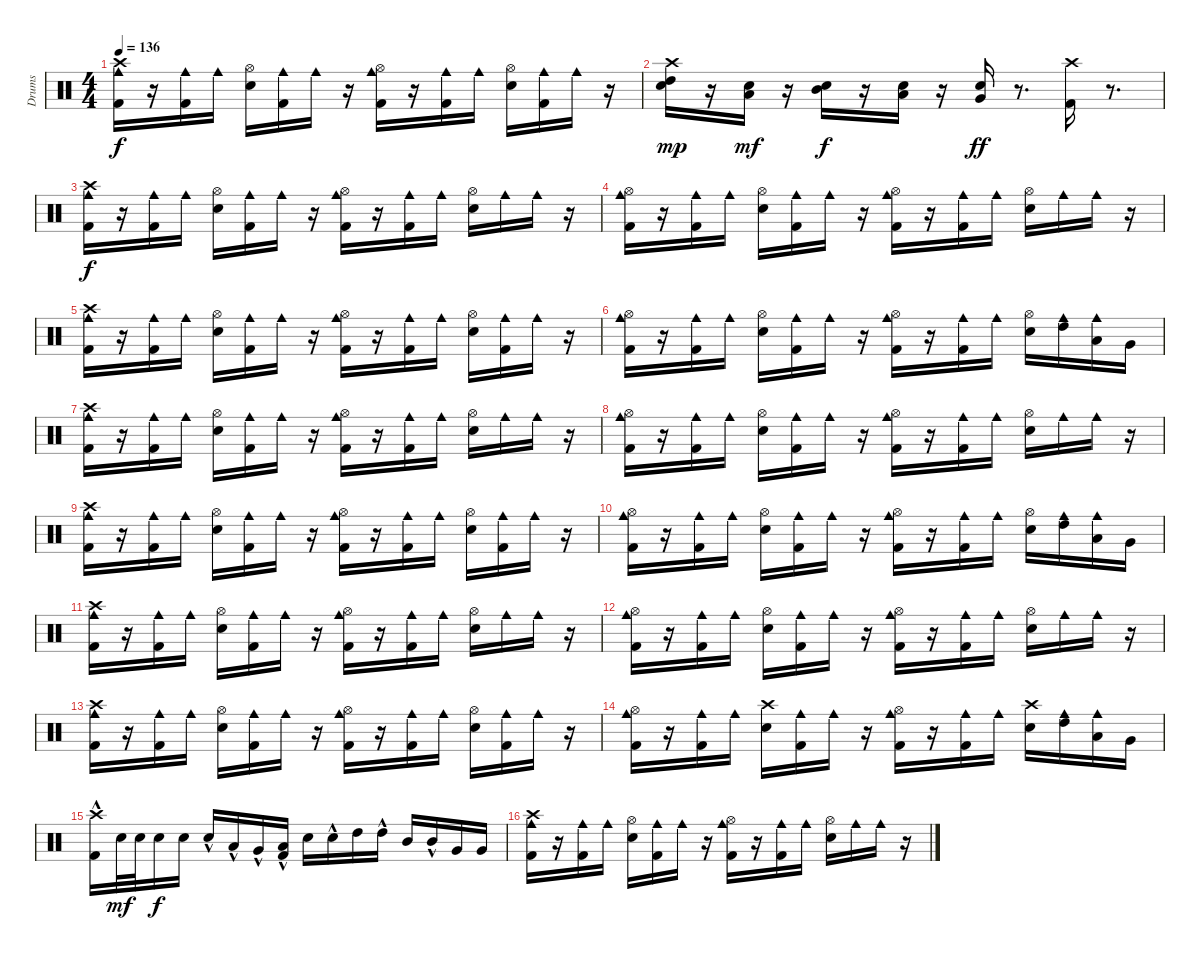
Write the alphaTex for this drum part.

\track ("Drums" "Drums") {instrument percussion}
\staff {score}
\articulation defaults
\ts (4 4)
\tempo 136
\clef neutral
\ks c
("Kick (hit) 2" "Cowbell medium (hit)" "Crash high (hit)").16{dy f} r.16 ("Kick (hit) 2" "Cowbell medium (hit)").16 "Cowbell medium (hit)".16 ("Metronome (bell)" "Hi-Hat (open)").16 ("Cowbell medium (hit)" "Kick (hit) 2").16 "Cowbell medium (hit)".16 r.16 ("Cowbell medium (hit)" "Kick (hit) 2" "Hi-Hat (open)").16 r.16 ("Cowbell medium (hit)" "Kick (hit) 2").16 "Cowbell medium (hit)".16 ("Metronome (bell)" "Hi-Hat (open)").16 ("Cowbell medium (hit)" "Kick (hit) 2").16 "Cowbell medium (hit)".16 r.16 |
("Crash high (hit)" "Metronome (bell)" "High Tom (hit)").16{dy mp} r.16 ("Low Floor Tom (hit)" "Metronome (bell)").16{dy mf} r.16 ("Metronome (bell)" "Mid Tom (hit)").16{dy f} r.16 ("Metronome (bell)" "Low Floor Tom (hit)").16 r.16 ("Metronome (bell)" "Very Low Tom (hit)").16{dy ff} r.8{d} ("Kick (hit) 2" "Crash high (hit)").16 r.8{d} |
("Cowbell medium (hit)" "Kick (hit) 2" "Crash high (hit)").16{dy f} r.16 ("Cowbell medium (hit)" "Kick (hit) 2").16 "Cowbell medium (hit)".16 ("Metronome (bell)" "Hi-Hat (open)").16 ("Cowbell medium (hit)" "Kick (hit) 2").16 "Cowbell medium (hit)".16 r.16 ("Kick (hit) 2" "Cowbell medium (hit)" "Hi-Hat (open)").16 r.16 ("Cowbell medium (hit)" "Kick (hit) 2").16 "Cowbell medium (hit)".16 ("Metronome (bell)" "Hi-Hat (open)").16 "Cowbell medium (hit)".16 "Cowbell medium (hit)".16 r.16 |
("Kick (hit) 2" "Cowbell medium (hit)" "Hi-Hat (open)").16 r.16 ("Kick (hit) 2" "Cowbell medium (hit)").16 "Cowbell medium (hit)".16 ("Metronome (bell)" "Hi-Hat (open)").16 ("Cowbell medium (hit)" "Kick (hit) 2").16 "Cowbell medium (hit)".16 r.16 ("Kick (hit) 2" "Cowbell medium (hit)" "Hi-Hat (open)").16 r.16 ("Kick (hit) 2" "Cowbell medium (hit)").16 "Cowbell medium (hit)".16 ("Metronome (bell)" "Hi-Hat (open)").16 "Cowbell medium (hit)".16 "Cowbell medium (hit)".16 r.16 |
("Cowbell medium (hit)" "Kick (hit) 2" "Crash high (hit)").16 r.16 ("Cowbell medium (hit)" "Kick (hit) 2").16 "Cowbell medium (hit)".16 ("Metronome (bell)" "Hi-Hat (open)").16 ("Cowbell medium (hit)" "Kick (hit) 2").16 "Cowbell medium (hit)".16 r.16 ("Kick (hit) 2" "Cowbell medium (hit)" "Hi-Hat (open)").16 r.16 ("Cowbell medium (hit)" "Kick (hit) 2").16 "Cowbell medium (hit)".16 ("Metronome (bell)" "Hi-Hat (open)").16 ("Cowbell medium (hit)" "Kick (hit) 2").16 "Cowbell medium (hit)".16 r.16 |
("Kick (hit) 2" "Cowbell medium (hit)" "Hi-Hat (open)").16 r.16 ("Kick (hit) 2" "Cowbell medium (hit)").16 "Cowbell medium (hit)".16 ("Metronome (bell)" "Hi-Hat (open)").16 ("Cowbell medium (hit)" "Kick (hit) 2").16 "Cowbell medium (hit)".16 r.16 ("Kick (hit) 2" "Cowbell medium (hit)" "Hi-Hat (open)").16 r.16 ("Kick (hit) 2" "Cowbell medium (hit)").16 "Cowbell medium (hit)".16 ("Metronome (bell)" "Hi-Hat (open)").16 ("Cowbell medium (hit)" "High Tom (hit)").16 ("Cowbell medium (hit)" "Low Tom (hit)").16 "Very Low Tom (hit)".16 |
("Cowbell medium (hit)" "Kick (hit) 2" "Crash high (hit)").16 r.16 ("Cowbell medium (hit)" "Kick (hit) 2").16 "Cowbell medium (hit)".16 ("Metronome (bell)" "Hi-Hat (open)").16 ("Cowbell medium (hit)" "Kick (hit) 2").16 "Cowbell medium (hit)".16 r.16 ("Kick (hit) 2" "Cowbell medium (hit)" "Hi-Hat (open)").16 r.16 ("Cowbell medium (hit)" "Kick (hit) 2").16 "Cowbell medium (hit)".16 ("Metronome (bell)" "Hi-Hat (open)").16 "Cowbell medium (hit)".16 "Cowbell medium (hit)".16 r.16 |
("Kick (hit) 2" "Cowbell medium (hit)" "Hi-Hat (open)").16 r.16 ("Kick (hit) 2" "Cowbell medium (hit)").16 "Cowbell medium (hit)".16 ("Metronome (bell)" "Hi-Hat (open)").16 ("Cowbell medium (hit)" "Kick (hit) 2").16 "Cowbell medium (hit)".16 r.16 ("Kick (hit) 2" "Cowbell medium (hit)" "Hi-Hat (open)").16 r.16 ("Kick (hit) 2" "Cowbell medium (hit)").16 "Cowbell medium (hit)".16 ("Metronome (bell)" "Hi-Hat (open)").16 "Cowbell medium (hit)".16 "Cowbell medium (hit)".16 r.16 |
("Cowbell medium (hit)" "Kick (hit) 2" "Crash high (hit)").16 r.16 ("Cowbell medium (hit)" "Kick (hit) 2").16 "Cowbell medium (hit)".16 ("Metronome (bell)" "Hi-Hat (open)").16 ("Cowbell medium (hit)" "Kick (hit) 2").16 "Cowbell medium (hit)".16 r.16 ("Kick (hit) 2" "Cowbell medium (hit)" "Hi-Hat (open)").16 r.16 ("Cowbell medium (hit)" "Kick (hit) 2").16 "Cowbell medium (hit)".16 ("Metronome (bell)" "Hi-Hat (open)").16 ("Cowbell medium (hit)" "Kick (hit) 2").16 "Cowbell medium (hit)".16 r.16 |
("Kick (hit) 2" "Cowbell medium (hit)" "Hi-Hat (open)").16 r.16 ("Kick (hit) 2" "Cowbell medium (hit)").16 "Cowbell medium (hit)".16 ("Metronome (bell)" "Hi-Hat (open)").16 ("Cowbell medium (hit)" "Kick (hit) 2").16 "Cowbell medium (hit)".16 r.16 ("Kick (hit) 2" "Cowbell medium (hit)" "Hi-Hat (open)").16 r.16 ("Kick (hit) 2" "Cowbell medium (hit)").16 "Cowbell medium (hit)".16 ("Metronome (bell)" "Hi-Hat (open)").16 ("Cowbell medium (hit)" "High Tom (hit)").16 ("Cowbell medium (hit)" "Low Tom (hit)").16 "Very Low Tom (hit)".16 |
("Cowbell medium (hit)" "Kick (hit) 2" "Crash high (hit)").16 r.16 ("Cowbell medium (hit)" "Kick (hit) 2").16 "Cowbell medium (hit)".16 ("Metronome (bell)" "Hi-Hat (open)").16 ("Cowbell medium (hit)" "Kick (hit) 2").16 "Cowbell medium (hit)".16 r.16 ("Kick (hit) 2" "Cowbell medium (hit)" "Hi-Hat (open)").16 r.16 ("Cowbell medium (hit)" "Kick (hit) 2").16 "Cowbell medium (hit)".16 ("Metronome (bell)" "Hi-Hat (open)").16 "Cowbell medium (hit)".16 "Cowbell medium (hit)".16 r.16 |
("Kick (hit) 2" "Cowbell medium (hit)" "Hi-Hat (open)").16 r.16 ("Kick (hit) 2" "Cowbell medium (hit)").16 "Cowbell medium (hit)".16 ("Metronome (bell)" "Hi-Hat (open)").16 ("Cowbell medium (hit)" "Kick (hit) 2").16 "Cowbell medium (hit)".16 r.16 ("Kick (hit) 2" "Cowbell medium (hit)" "Hi-Hat (open)").16 r.16 ("Kick (hit) 2" "Cowbell medium (hit)").16 "Cowbell medium (hit)".16 ("Metronome (bell)" "Hi-Hat (open)").16 "Cowbell medium (hit)".16 "Cowbell medium (hit)".16 r.16 |
("Cowbell medium (hit)" "Kick (hit) 2" "Crash high (hit)").16 r.16 ("Cowbell medium (hit)" "Kick (hit) 2").16 "Cowbell medium (hit)".16 ("Metronome (bell)" "Hi-Hat (open)").16 ("Cowbell medium (hit)" "Kick (hit) 2").16 "Cowbell medium (hit)".16 r.16 ("Kick (hit) 2" "Cowbell medium (hit)" "Hi-Hat (open)").16 r.16 ("Cowbell medium (hit)" "Kick (hit) 2").16 "Cowbell medium (hit)".16 ("Metronome (bell)" "Hi-Hat (open)").16 ("Cowbell medium (hit)" "Kick (hit) 2").16 "Cowbell medium (hit)".16 r.16 |
("Kick (hit) 2" "Cowbell medium (hit)" "Hi-Hat (open)").16 r.16 ("Kick (hit) 2" "Cowbell medium (hit)").16 "Cowbell medium (hit)".16 ("Metronome (bell)" "Crash high (hit)").16 ("Cowbell medium (hit)" "Kick (hit) 2").16 "Cowbell medium (hit)".16 r.16 ("Kick (hit) 2" "Cowbell medium (hit)" "Hi-Hat (open)").16 r.16 ("Kick (hit) 2" "Cowbell medium (hit)").16 "Cowbell medium (hit)".16 ("Metronome (bell)" "Crash high (hit)").16 ("Cowbell medium (hit)" "High Tom (hit)").16 ("Cowbell medium (hit)" "Low Tom (hit)").16 "Very Low Tom (hit)".16 |
("Crash high (hit)"{hac} "Kick (hit) 2"{hac}).16 "Metronome (bell)".32{dy mf} "Metronome (bell)".32 "Metronome (bell)".16{dy f} "Metronome (bell)".16 "Metronome (bell)"{hac}.16 "Low Tom (hit)"{hac}.16 "Very Low Tom (hit)"{hac}.16 ("Kick (hit) 2"{hac} "Low Floor Tom (hit)"{hac}).16 "Metronome (bell)".16 "Metronome (bell)"{hac}.16 "High Tom (hit)".16 "High Tom (hit)"{hac}.16 "Mid Tom (hit)".16 "Mid Tom (hit)"{hac}.16 "Very Low Tom (hit)".16 "Very Low Tom (hit)".16 |
("Cowbell medium (hit)" "Kick (hit) 2" "Crash high (hit)").16 r.16 ("Cowbell medium (hit)" "Kick (hit) 2").16 "Cowbell medium (hit)".16 ("Metronome (bell)" "Hi-Hat (open)").16 ("Cowbell medium (hit)" "Kick (hit) 2").16 "Cowbell medium (hit)".16 r.16 ("Kick (hit) 2" "Cowbell medium (hit)" "Hi-Hat (open)").16 r.16 ("Cowbell medium (hit)" "Kick (hit) 2").16 "Cowbell medium (hit)".16 ("Metronome (bell)" "Hi-Hat (open)").16 "Cowbell medium (hit)".16 "Cowbell medium (hit)".16 r.16
